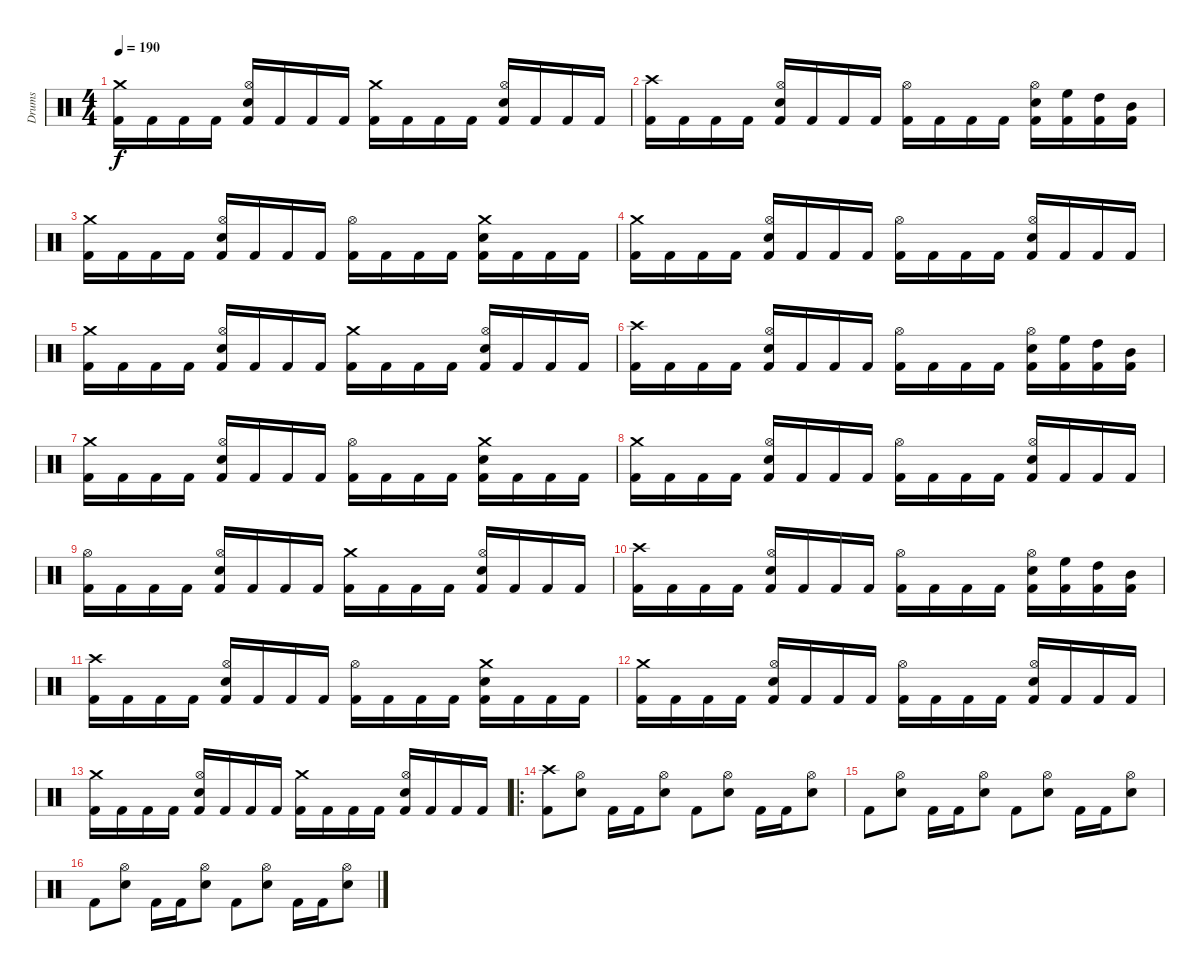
\track ("Drums" "Drums") {instrument percussion}
\staff {score}
\articulation defaults
\ts (4 4)
\tempo 190
\clef neutral
\ks c
("Crash medium (hit)" "Kick (hit) 2").16{dy f} "Kick (hit) 2".16 "Kick (hit) 2".16 "Kick (hit) 2".16 ("Hi-Hat (open)" "Electric Snare (hit)" "Kick (hit) 2").16 "Kick (hit) 2".16 "Kick (hit) 2".16 "Kick (hit) 2".16 ("Crash medium (hit)" "Kick (hit) 2").16 "Kick (hit) 2".16 "Kick (hit) 2".16 "Kick (hit) 2".16 ("Hi-Hat (open)" "Electric Snare (hit)" "Kick (hit) 2").16 "Kick (hit) 2".16 "Kick (hit) 2".16 "Kick (hit) 2".16 |
("Crash high (hit)" "Kick (hit) 2").16 "Kick (hit) 2".16 "Kick (hit) 2".16 "Kick (hit) 2".16 ("Hi-Hat (open)" "Electric Snare (hit)" "Kick (hit) 2").16 "Kick (hit) 2".16 "Kick (hit) 2".16 "Kick (hit) 2".16 ("Hi-Hat (open)" "Kick (hit) 2").16 "Kick (hit) 2".16 "Kick (hit) 2".16 "Kick (hit) 2".16 ("Hi-Hat (open)" "Electric Snare (hit)" "Kick (hit) 2").16 ("High Floor Tom (hit)" "Kick (hit) 2").16 ("High Tom (hit)" "Kick (hit) 2").16 ("Mid Tom (hit)" "Kick (hit) 2").16 |
("Crash medium (hit)" "Kick (hit) 2").16 "Kick (hit) 2".16 "Kick (hit) 2".16 "Kick (hit) 2".16 ("Hi-Hat (open)" "Electric Snare (hit)" "Kick (hit) 2").16 "Kick (hit) 2".16 "Kick (hit) 2".16 "Kick (hit) 2".16 ("Hi-Hat (open)" "Kick (hit) 2").16 "Kick (hit) 2".16 "Kick (hit) 2".16 "Kick (hit) 2".16 ("Crash medium (hit)" "Electric Snare (hit)" "Kick (hit) 2").16 "Kick (hit) 2".16 "Kick (hit) 2".16 "Kick (hit) 2".16 |
("Crash medium (hit)" "Kick (hit) 2").16 "Kick (hit) 2".16 "Kick (hit) 2".16 "Kick (hit) 2".16 ("Hi-Hat (open)" "Electric Snare (hit)" "Kick (hit) 2").16 "Kick (hit) 2".16 "Kick (hit) 2".16 "Kick (hit) 2".16 ("Hi-Hat (open)" "Kick (hit) 2").16 "Kick (hit) 2".16 "Kick (hit) 2".16 "Kick (hit) 2".16 ("Hi-Hat (open)" "Electric Snare (hit)" "Kick (hit) 2").16 "Kick (hit) 2".16 "Kick (hit) 2".16 "Kick (hit) 2".16 |
("Crash medium (hit)" "Kick (hit) 2").16 "Kick (hit) 2".16 "Kick (hit) 2".16 "Kick (hit) 2".16 ("Hi-Hat (open)" "Electric Snare (hit)" "Kick (hit) 2").16 "Kick (hit) 2".16 "Kick (hit) 2".16 "Kick (hit) 2".16 ("Crash medium (hit)" "Kick (hit) 2").16 "Kick (hit) 2".16 "Kick (hit) 2".16 "Kick (hit) 2".16 ("Hi-Hat (open)" "Electric Snare (hit)" "Kick (hit) 2").16 "Kick (hit) 2".16 "Kick (hit) 2".16 "Kick (hit) 2".16 |
("Crash high (hit)" "Kick (hit) 2").16 "Kick (hit) 2".16 "Kick (hit) 2".16 "Kick (hit) 2".16 ("Hi-Hat (open)" "Electric Snare (hit)" "Kick (hit) 2").16 "Kick (hit) 2".16 "Kick (hit) 2".16 "Kick (hit) 2".16 ("Hi-Hat (open)" "Kick (hit) 2").16 "Kick (hit) 2".16 "Kick (hit) 2".16 "Kick (hit) 2".16 ("Hi-Hat (open)" "Electric Snare (hit)" "Kick (hit) 2").16 ("High Floor Tom (hit)" "Kick (hit) 2").16 ("High Tom (hit)" "Kick (hit) 2").16 ("Mid Tom (hit)" "Kick (hit) 2").16 |
("Crash medium (hit)" "Kick (hit) 2").16 "Kick (hit) 2".16 "Kick (hit) 2".16 "Kick (hit) 2".16 ("Hi-Hat (open)" "Electric Snare (hit)" "Kick (hit) 2").16 "Kick (hit) 2".16 "Kick (hit) 2".16 "Kick (hit) 2".16 ("Hi-Hat (open)" "Kick (hit) 2").16 "Kick (hit) 2".16 "Kick (hit) 2".16 "Kick (hit) 2".16 ("Crash medium (hit)" "Electric Snare (hit)" "Kick (hit) 2").16 "Kick (hit) 2".16 "Kick (hit) 2".16 "Kick (hit) 2".16 |
("Crash medium (hit)" "Kick (hit) 2").16 "Kick (hit) 2".16 "Kick (hit) 2".16 "Kick (hit) 2".16 ("Hi-Hat (open)" "Electric Snare (hit)" "Kick (hit) 2").16 "Kick (hit) 2".16 "Kick (hit) 2".16 "Kick (hit) 2".16 ("Hi-Hat (open)" "Kick (hit) 2").16 "Kick (hit) 2".16 "Kick (hit) 2".16 "Kick (hit) 2".16 ("Hi-Hat (open)" "Electric Snare (hit)" "Kick (hit) 2").16 "Kick (hit) 2".16 "Kick (hit) 2".16 "Kick (hit) 2".16 |
("Hi-Hat (open)" "Kick (hit) 2").16 "Kick (hit) 2".16 "Kick (hit) 2".16 "Kick (hit) 2".16 ("Hi-Hat (open)" "Electric Snare (hit)" "Kick (hit) 2").16 "Kick (hit) 2".16 "Kick (hit) 2".16 "Kick (hit) 2".16 ("Crash medium (hit)" "Kick (hit) 2").16 "Kick (hit) 2".16 "Kick (hit) 2".16 "Kick (hit) 2".16 ("Hi-Hat (open)" "Electric Snare (hit)" "Kick (hit) 2").16 "Kick (hit) 2".16 "Kick (hit) 2".16 "Kick (hit) 2".16 |
("Crash high (hit)" "Kick (hit) 2").16 "Kick (hit) 2".16 "Kick (hit) 2".16 "Kick (hit) 2".16 ("Hi-Hat (open)" "Electric Snare (hit)" "Kick (hit) 2").16 "Kick (hit) 2".16 "Kick (hit) 2".16 "Kick (hit) 2".16 ("Hi-Hat (open)" "Kick (hit) 2").16 "Kick (hit) 2".16 "Kick (hit) 2".16 "Kick (hit) 2".16 ("Hi-Hat (open)" "Electric Snare (hit)" "Kick (hit) 2").16 ("High Floor Tom (hit)" "Kick (hit) 2").16 ("High Tom (hit)" "Kick (hit) 2").16 ("Mid Tom (hit)" "Kick (hit) 2").16 |
("Crash high (hit)" "Kick (hit) 2").16 "Kick (hit) 2".16 "Kick (hit) 2".16 "Kick (hit) 2".16 ("Hi-Hat (open)" "Electric Snare (hit)" "Kick (hit) 2").16 "Kick (hit) 2".16 "Kick (hit) 2".16 "Kick (hit) 2".16 ("Hi-Hat (open)" "Kick (hit) 2").16 "Kick (hit) 2".16 "Kick (hit) 2".16 "Kick (hit) 2".16 ("Crash medium (hit)" "Electric Snare (hit)" "Kick (hit) 2").16 "Kick (hit) 2".16 "Kick (hit) 2".16 "Kick (hit) 2".16 |
("Crash medium (hit)" "Kick (hit) 2").16 "Kick (hit) 2".16 "Kick (hit) 2".16 "Kick (hit) 2".16 ("Hi-Hat (open)" "Electric Snare (hit)" "Kick (hit) 2").16 "Kick (hit) 2".16 "Kick (hit) 2".16 "Kick (hit) 2".16 ("Hi-Hat (open)" "Kick (hit) 2").16 "Kick (hit) 2".16 "Kick (hit) 2".16 "Kick (hit) 2".16 ("Hi-Hat (open)" "Electric Snare (hit)" "Kick (hit) 2").16 "Kick (hit) 2".16 "Kick (hit) 2".16 "Kick (hit) 2".16 |
("Crash medium (hit)" "Kick (hit) 2").16 "Kick (hit) 2".16 "Kick (hit) 2".16 "Kick (hit) 2".16 ("Hi-Hat (open)" "Electric Snare (hit)" "Kick (hit) 2").16 "Kick (hit) 2".16 "Kick (hit) 2".16 "Kick (hit) 2".16 ("Crash medium (hit)" "Kick (hit) 2").16 "Kick (hit) 2".16 "Kick (hit) 2".16 "Kick (hit) 2".16 ("Hi-Hat (open)" "Electric Snare (hit)" "Kick (hit) 2").16 "Kick (hit) 2".16 "Kick (hit) 2".16 "Kick (hit) 2".16 |
\ro
("Crash high (hit)" "Kick (hit) 2").8 ("Hi-Hat (open)" "Electric Snare (hit)").8 "Kick (hit) 2".16 "Kick (hit) 2".16 ("Hi-Hat (open)" "Electric Snare (hit)").8 "Kick (hit) 2".8 ("Hi-Hat (open)" "Electric Snare (hit)").8 "Kick (hit) 2".16 "Kick (hit) 2".16 ("Hi-Hat (open)" "Electric Snare (hit)").8 |
"Kick (hit) 2".8 ("Hi-Hat (open)" "Electric Snare (hit)").8 "Kick (hit) 2".16 "Kick (hit) 2".16 ("Hi-Hat (open)" "Electric Snare (hit)").8 "Kick (hit) 2".8 ("Hi-Hat (open)" "Electric Snare (hit)").8 "Kick (hit) 2".16 "Kick (hit) 2".16 ("Hi-Hat (open)" "Electric Snare (hit)").8 |
"Kick (hit) 2".8 ("Hi-Hat (open)" "Electric Snare (hit)").8 "Kick (hit) 2".16 "Kick (hit) 2".16 ("Hi-Hat (open)" "Electric Snare (hit)").8 "Kick (hit) 2".8 ("Hi-Hat (open)" "Electric Snare (hit)").8 "Kick (hit) 2".16 "Kick (hit) 2".16 ("Hi-Hat (open)" "Electric Snare (hit)").8
